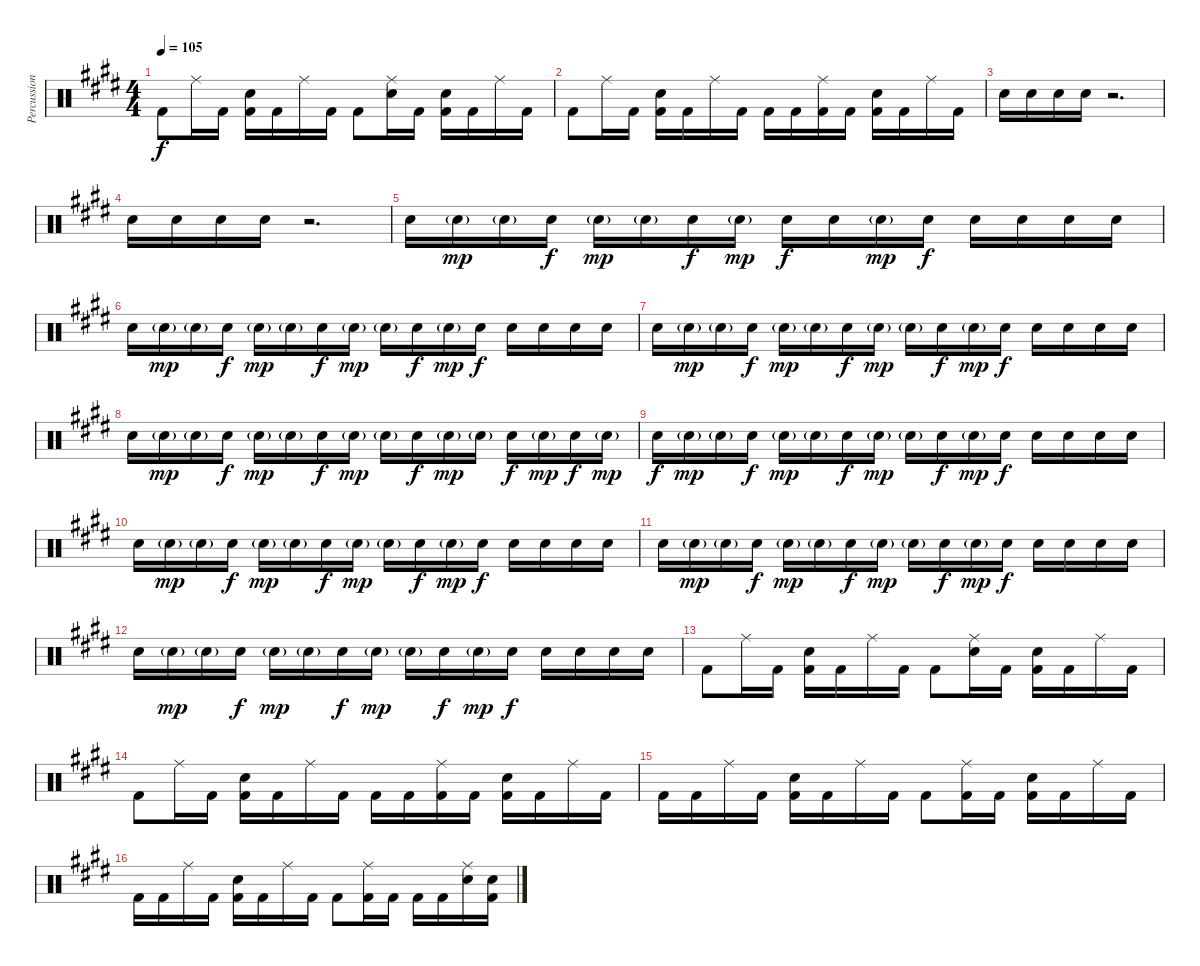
\track ("Percussion" "Percussion") {instrument percussion}
\staff {score}
\articulation defaults
\ts (4 4)
\tempo 105
\clef neutral
\ks c#minor "Kick (hit) 2".8{dy f} "Ride (middle)".16 "Kick (hit) 2".16
("Snare (hit) 2" "Kick (hit) 2").16 "Kick (hit) 2".16 "Ride (middle)".16 "Kick (hit) 2".16 "Kick (hit) 2".8 ("Ride (middle)" "Snare (hit) 2").16 "Kick (hit) 2".16 ("Snare (hit) 2" "Kick (hit) 2").16 "Kick (hit) 2".16 "Ride (middle)".16 "Kick (hit) 2".16 |
"Kick (hit) 2".8 "Ride (middle)".16 "Kick (hit) 2".16 ("Snare (hit) 2" "Kick (hit) 2").16 "Kick (hit) 2".16 "Ride (middle)".16 "Kick (hit) 2".16 "Kick (hit) 2".16 "Kick (hit) 2".16 ("Ride (middle)" "Kick (hit) 2").16 "Kick (hit) 2".16 ("Snare (hit) 2" "Kick (hit) 2").16 "Kick (hit) 2".16 "Ride (middle)".16 "Kick (hit) 2".16 |
"Snare (hit) 2".16 "Snare (hit) 2".16 "Snare (hit) 2".16 "Snare (hit) 2".16 r.2{d} |
"Snare (hit) 2".16 "Snare (hit) 2".16 "Snare (hit) 2".16 "Snare (hit) 2".16 r.2{d} |
"Snare (hit) 2".16{volume 3} "Snare (hit) 2"{g}.16{dy mp} "Snare (hit) 2"{g}.16 "Snare (hit) 2".16{dy f} "Snare (hit) 2"{g}.16{dy mp} "Snare (hit) 2"{g}.16 "Snare (hit) 2".16{dy f} "Snare (hit) 2"{g}.16{dy mp} "Snare (hit) 2".16{dy f} "Snare (hit) 2".16 "Snare (hit) 2"{g}.16{dy mp} "Snare (hit) 2".16{dy f} "Snare (hit) 2".16 "Snare (hit) 2".16 "Snare (hit) 2".16 "Snare (hit) 2".16 |
"Snare (hit) 2".16 "Snare (hit) 2"{g}.16{dy mp} "Snare (hit) 2"{g}.16 "Snare (hit) 2".16{dy f} "Snare (hit) 2"{g}.16{dy mp} "Snare (hit) 2"{g}.16 "Snare (hit) 2".16{dy f} "Snare (hit) 2"{g}.16{dy mp} "Snare (hit) 2"{g}.16 "Snare (hit) 2".16{dy f} "Snare (hit) 2"{g}.16{dy mp} "Snare (hit) 2".16{dy f} "Snare (hit) 2".16 "Snare (hit) 2".16 "Snare (hit) 2".16 "Snare (hit) 2".16 |
"Snare (hit) 2".16 "Snare (hit) 2"{g}.16{dy mp} "Snare (hit) 2"{g}.16 "Snare (hit) 2".16{dy f} "Snare (hit) 2"{g}.16{dy mp} "Snare (hit) 2"{g}.16 "Snare (hit) 2".16{dy f} "Snare (hit) 2"{g}.16{dy mp} "Snare (hit) 2"{g}.16 "Snare (hit) 2".16{dy f} "Snare (hit) 2"{g}.16{dy mp} "Snare (hit) 2".16{dy f} "Snare (hit) 2".16 "Snare (hit) 2".16 "Snare (hit) 2".16 "Snare (hit) 2".16 |
"Snare (hit) 2".16 "Snare (hit) 2"{g}.16{dy mp} "Snare (hit) 2"{g}.16 "Snare (hit) 2".16{dy f} "Snare (hit) 2"{g}.16{dy mp} "Snare (hit) 2"{g}.16 "Snare (hit) 2".16{dy f} "Snare (hit) 2"{g}.16{dy mp} "Snare (hit) 2"{g}.16 "Snare (hit) 2".16{dy f} "Snare (hit) 2"{g}.16{dy mp} "Snare (hit) 2"{g}.16 "Snare (hit) 2".16{dy f} "Snare (hit) 2"{g}.16{dy mp} "Snare (hit) 2".16{dy f} "Snare (hit) 2"{g}.16{dy mp} |
"Snare (hit) 2".16{dy f} "Snare (hit) 2"{g}.16{dy mp} "Snare (hit) 2"{g}.16 "Snare (hit) 2".16{dy f} "Snare (hit) 2"{g}.16{dy mp} "Snare (hit) 2"{g}.16 "Snare (hit) 2".16{dy f} "Snare (hit) 2"{g}.16{dy mp} "Snare (hit) 2"{g}.16 "Snare (hit) 2".16{dy f} "Snare (hit) 2"{g}.16{dy mp} "Snare (hit) 2".16{dy f} "Snare (hit) 2".16 "Snare (hit) 2".16 "Snare (hit) 2".16 "Snare (hit) 2".16 |
"Snare (hit) 2".16 "Snare (hit) 2"{g}.16{dy mp} "Snare (hit) 2"{g}.16 "Snare (hit) 2".16{dy f} "Snare (hit) 2"{g}.16{dy mp} "Snare (hit) 2"{g}.16 "Snare (hit) 2".16{dy f} "Snare (hit) 2"{g}.16{dy mp} "Snare (hit) 2"{g}.16 "Snare (hit) 2".16{dy f} "Snare (hit) 2"{g}.16{dy mp} "Snare (hit) 2".16{dy f} "Snare (hit) 2".16 "Snare (hit) 2".16 "Snare (hit) 2".16 "Snare (hit) 2".16 |
"Snare (hit) 2".16 "Snare (hit) 2"{g}.16{dy mp} "Snare (hit) 2"{g}.16 "Snare (hit) 2".16{dy f} "Snare (hit) 2"{g}.16{dy mp} "Snare (hit) 2"{g}.16 "Snare (hit) 2".16{dy f} "Snare (hit) 2"{g}.16{dy mp} "Snare (hit) 2"{g}.16 "Snare (hit) 2".16{dy f} "Snare (hit) 2"{g}.16{dy mp} "Snare (hit) 2".16{dy f} "Snare (hit) 2".16 "Snare (hit) 2".16 "Snare (hit) 2".16 "Snare (hit) 2".16 |
"Snare (hit) 2".16 "Snare (hit) 2"{g}.16{dy mp} "Snare (hit) 2"{g}.16 "Snare (hit) 2".16{dy f} "Snare (hit) 2"{g}.16{dy mp} "Snare (hit) 2"{g}.16 "Snare (hit) 2".16{dy f} "Snare (hit) 2"{g}.16{dy mp} "Snare (hit) 2"{g}.16 "Snare (hit) 2".16{dy f} "Snare (hit) 2"{g}.16{dy mp} "Snare (hit) 2".16{dy f} "Snare (hit) 2".16{volume 9} "Snare (hit) 2".16 "Snare (hit) 2".16 "Snare (hit) 2".16 |
"Kick (hit) 2".8 "Ride (middle)".16 "Kick (hit) 2".16 ("Snare (hit) 2" "Kick (hit) 2").16 "Kick (hit) 2".16 "Ride (middle)".16 "Kick (hit) 2".16 "Kick (hit) 2".8 ("Ride (middle)" "Snare (hit) 2").16 "Kick (hit) 2".16 ("Snare (hit) 2" "Kick (hit) 2").16 "Kick (hit) 2".16 "Ride (middle)".16 "Kick (hit) 2".16 |
"Kick (hit) 2".8 "Ride (middle)".16 "Kick (hit) 2".16 ("Snare (hit) 2" "Kick (hit) 2").16 "Kick (hit) 2".16 "Ride (middle)".16 "Kick (hit) 2".16 "Kick (hit) 2".16 "Kick (hit) 2".16 ("Ride (middle)" "Kick (hit) 2").16 "Kick (hit) 2".16 ("Snare (hit) 2" "Kick (hit) 2").16 "Kick (hit) 2".16 "Ride (middle)".16 "Kick (hit) 2".16 |
"Kick (hit) 2".16 "Kick (hit) 2".16 "Ride (middle)".16 "Kick (hit) 2".16 ("Snare (hit) 2" "Kick (hit) 2").16 "Kick (hit) 2".16 "Ride (middle)".16 "Kick (hit) 2".16 "Kick (hit) 2".8 ("Ride (middle)" "Kick (hit) 2").16 "Kick (hit) 2".16 ("Snare (hit) 2" "Kick (hit) 2").16 "Kick (hit) 2".16 "Ride (middle)".16 "Kick (hit) 2".16 |
"Kick (hit) 2".16 "Kick (hit) 2".16 "Ride (middle)".16 "Kick (hit) 2".16 ("Snare (hit) 2" "Kick (hit) 2").16 "Kick (hit) 2".16 "Ride (middle)".16 "Kick (hit) 2".16 "Kick (hit) 2".8 ("Ride (middle)" "Kick (hit) 2").16 "Kick (hit) 2".16 "Kick (hit) 2".16 "Kick (hit) 2".16 ("Ride (middle)" "Snare (hit) 2").16 ("Snare (hit) 2" "Kick (hit) 2").16
